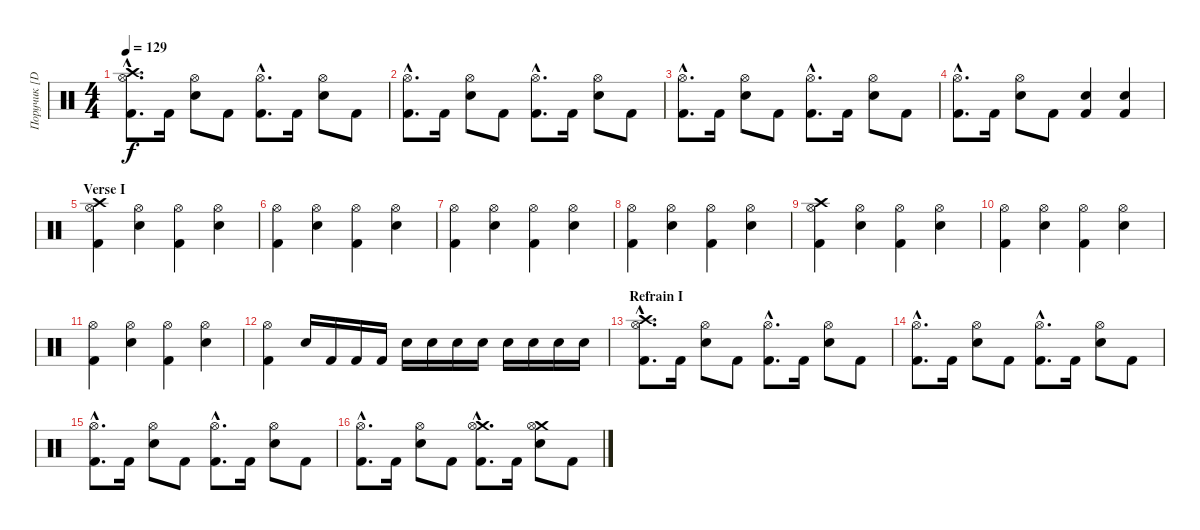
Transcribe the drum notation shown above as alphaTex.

\track ("Поручик [Drums]" "Поручик [D") {instrument percussion}
\staff {score}
\articulation defaults
\ts (4 4)
\tempo 129
\clef neutral
\ks c
("Crash high (hit)"{hac} "Hi-Hat (open)"{hac} "Kick (hit) 2"{hac}).8{d dy f} "Kick (hit) 2".16 ("Hi-Hat (open)" "Snare (hit) 2").8 "Kick (hit) 2".8 ("Hi-Hat (open)"{hac} "Kick (hit) 2"{hac}).8{d} "Kick (hit) 2".16 ("Hi-Hat (open)" "Snare (hit) 2").8 "Kick (hit) 2".8 |
("Hi-Hat (open)"{hac} "Kick (hit) 2"{hac}).8{d} "Kick (hit) 2".16 ("Hi-Hat (open)" "Snare (hit) 2").8 "Kick (hit) 2".8 ("Hi-Hat (open)"{hac} "Kick (hit) 2"{hac}).8{d} "Kick (hit) 2".16 ("Hi-Hat (open)" "Snare (hit) 2").8 "Kick (hit) 2".8 |
("Hi-Hat (open)"{hac} "Kick (hit) 2"{hac}).8{d} "Kick (hit) 2".16 ("Hi-Hat (open)" "Snare (hit) 2").8 "Kick (hit) 2".8 ("Hi-Hat (open)"{hac} "Kick (hit) 2"{hac}).8{d} "Kick (hit) 2".16 ("Hi-Hat (open)" "Snare (hit) 2").8 "Kick (hit) 2".8 |
("Hi-Hat (open)"{hac} "Kick (hit) 2"{hac}).8{d} "Kick (hit) 2".16 ("Hi-Hat (open)" "Snare (hit) 2").8 "Kick (hit) 2".8 ("Snare (hit) 2" "Kick (hit) 2").4 ("Snare (hit) 2" "Kick (hit) 2").4 |
\section ("" "Verse I")
("Crash high (hit)" "Hi-Hat (open)" "Kick (hit) 2").4 ("Hi-Hat (open)" "Snare (hit) 2").4 ("Hi-Hat (open)" "Kick (hit) 2").4 ("Hi-Hat (open)" "Snare (hit) 2").4 |
("Hi-Hat (open)" "Kick (hit) 2").4 ("Hi-Hat (open)" "Snare (hit) 2").4 ("Hi-Hat (open)" "Kick (hit) 2").4 ("Hi-Hat (open)" "Snare (hit) 2").4 |
("Hi-Hat (open)" "Kick (hit) 2").4 ("Hi-Hat (open)" "Snare (hit) 2").4 ("Hi-Hat (open)" "Kick (hit) 2").4 ("Hi-Hat (open)" "Snare (hit) 2").4 |
("Hi-Hat (open)" "Kick (hit) 2").4 ("Hi-Hat (open)" "Snare (hit) 2").4 ("Hi-Hat (open)" "Kick (hit) 2").4 ("Hi-Hat (open)" "Snare (hit) 2").4 |
("Crash high (hit)" "Hi-Hat (open)" "Kick (hit) 2").4 ("Hi-Hat (open)" "Snare (hit) 2").4 ("Hi-Hat (open)" "Kick (hit) 2").4 ("Hi-Hat (open)" "Snare (hit) 2").4 |
("Hi-Hat (open)" "Kick (hit) 2").4 ("Hi-Hat (open)" "Snare (hit) 2").4 ("Hi-Hat (open)" "Kick (hit) 2").4 ("Hi-Hat (open)" "Snare (hit) 2").4 |
("Hi-Hat (open)" "Kick (hit) 2").4 ("Hi-Hat (open)" "Snare (hit) 2").4 ("Hi-Hat (open)" "Kick (hit) 2").4 ("Hi-Hat (open)" "Snare (hit) 2").4 |
("Hi-Hat (open)" "Kick (hit) 2").4 "Snare (hit) 2".16 "Kick (hit) 2".16 "Kick (hit) 2".16 "Kick (hit) 2".16 "Snare (hit) 2".16 "Snare (hit) 2".16 "Snare (hit) 2".16 "Snare (hit) 2".16 "Snare (hit) 2".16 "Snare (hit) 2".16 "Snare (hit) 2".16 "Snare (hit) 2".16 |
\section ("" "Refrain I")
("Crash high (hit)"{hac} "Hi-Hat (open)"{hac} "Kick (hit) 2"{hac}).8{d} "Kick (hit) 2".16 ("Hi-Hat (open)" "Snare (hit) 2").8 "Kick (hit) 2".8 ("Hi-Hat (open)"{hac} "Kick (hit) 2"{hac}).8{d} "Kick (hit) 2".16 ("Hi-Hat (open)" "Snare (hit) 2").8 "Kick (hit) 2".8 |
("Hi-Hat (open)"{hac} "Kick (hit) 2"{hac}).8{d} "Kick (hit) 2".16 ("Hi-Hat (open)" "Snare (hit) 2").8 "Kick (hit) 2".8 ("Hi-Hat (open)"{hac} "Kick (hit) 2"{hac}).8{d} "Kick (hit) 2".16 ("Hi-Hat (open)" "Snare (hit) 2").8 "Kick (hit) 2".8 |
("Hi-Hat (open)"{hac} "Kick (hit) 2"{hac}).8{d} "Kick (hit) 2".16 ("Hi-Hat (open)" "Snare (hit) 2").8 "Kick (hit) 2".8 ("Hi-Hat (open)"{hac} "Kick (hit) 2"{hac}).8{d} "Kick (hit) 2".16 ("Hi-Hat (open)" "Snare (hit) 2").8 "Kick (hit) 2".8 |
("Hi-Hat (open)"{hac} "Kick (hit) 2"{hac}).8{d} "Kick (hit) 2".16 ("Hi-Hat (open)" "Snare (hit) 2").8 "Kick (hit) 2".8 ("Crash medium (hit)"{hac} "Hi-Hat (open)"{hac} "Kick (hit) 2"{hac}).8{d} "Kick (hit) 2".16 ("Crash medium (hit)" "Hi-Hat (open)" "Snare (hit) 2").8 "Kick (hit) 2".8
